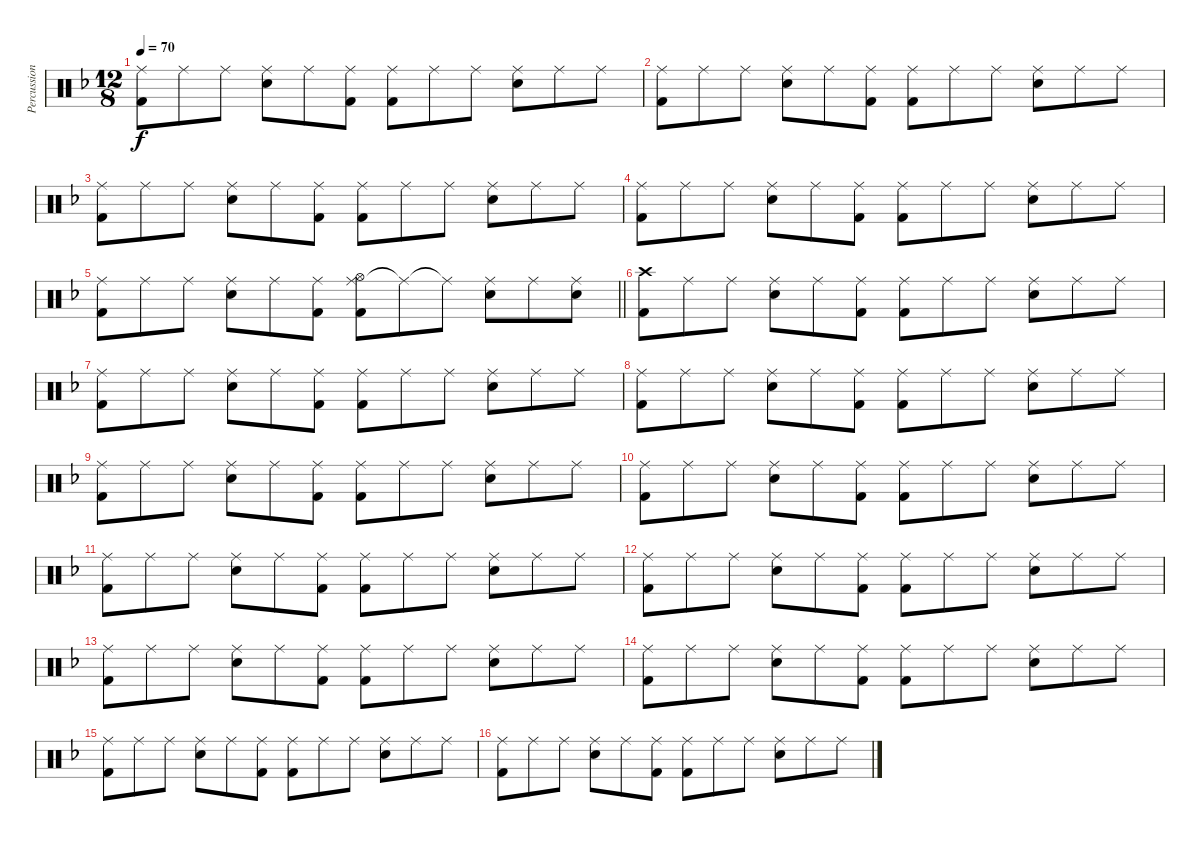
\track ("Percussion" "Percussion") {instrument percussion}
\staff {score}
\articulation defaults
\ts (12 8)
\tempo 70
\clef neutral
\ks dminor
("Ride (middle)" "Kick (hit) 2").8{dy f} "Ride (middle)".8 "Ride (middle)".8 ("Ride (middle)" "Snare (hit) 2").8 "Ride (middle)".8 ("Ride (middle)" "Kick (hit) 2").8 ("Ride (middle)" "Kick (hit) 2").8 "Ride (middle)".8 "Ride (middle)".8 ("Ride (middle)" "Snare (hit) 2").8 "Ride (middle)".8 "Ride (middle)".8 |
("Ride (middle)" "Kick (hit) 2").8 "Ride (middle)".8 "Ride (middle)".8 ("Ride (middle)" "Snare (hit) 2").8 "Ride (middle)".8 ("Ride (middle)" "Kick (hit) 2").8 ("Ride (middle)" "Kick (hit) 2").8 "Ride (middle)".8 "Ride (middle)".8 ("Ride (middle)" "Snare (hit) 2").8 "Ride (middle)".8 "Ride (middle)".8 |
("Ride (middle)" "Kick (hit) 2").8 "Ride (middle)".8 "Ride (middle)".8 ("Ride (middle)" "Snare (hit) 2").8 "Ride (middle)".8 ("Ride (middle)" "Kick (hit) 2").8 ("Ride (middle)" "Kick (hit) 2").8 "Ride (middle)".8 "Ride (middle)".8 ("Ride (middle)" "Snare (hit) 2").8 "Ride (middle)".8 "Ride (middle)".8 |
("Ride (middle)" "Kick (hit) 2").8 "Ride (middle)".8 "Ride (middle)".8 ("Ride (middle)" "Snare (hit) 2").8 "Ride (middle)".8 ("Ride (middle)" "Kick (hit) 2").8 ("Ride (middle)" "Kick (hit) 2").8 "Ride (middle)".8 "Ride (middle)".8 ("Ride (middle)" "Snare (hit) 2").8 "Ride (middle)".8 "Ride (middle)".8 |
\barLineRight lightlight
("Ride (middle)" "Kick (hit) 2").8 "Ride (middle)".8 "Ride (middle)".8 ("Ride (middle)" "Snare (hit) 2").8 "Ride (middle)".8 ("Ride (middle)" "Kick (hit) 2").8 ("Ride (middle)" "Hi-Hat (open)" "Kick (hit) 2").8 "Ride (middle)"{t}.8 "Ride (middle)"{t}.8 ("Ride (middle)" "Snare (hit) 2").8 "Ride (middle)".8 ("Ride (middle)" "Snare (hit) 2").8 |
("Crash high (hit)" "Kick (hit) 2").8 "Ride (middle)".8 "Ride (middle)".8 ("Ride (middle)" "Snare (hit) 2").8 "Ride (middle)".8 ("Ride (middle)" "Kick (hit) 2").8 ("Ride (middle)" "Kick (hit) 2").8 "Ride (middle)".8 "Ride (middle)".8 ("Ride (middle)" "Snare (hit) 2").8 "Ride (middle)".8 "Ride (middle)".8 |
("Ride (middle)" "Kick (hit) 2").8 "Ride (middle)".8 "Ride (middle)".8 ("Ride (middle)" "Snare (hit) 2").8 "Ride (middle)".8 ("Ride (middle)" "Kick (hit) 2").8 ("Ride (middle)" "Kick (hit) 2").8 "Ride (middle)".8 "Ride (middle)".8 ("Ride (middle)" "Snare (hit) 2").8 "Ride (middle)".8 "Ride (middle)".8 |
("Ride (middle)" "Kick (hit) 2").8 "Ride (middle)".8 "Ride (middle)".8 ("Ride (middle)" "Snare (hit) 2").8 "Ride (middle)".8 ("Ride (middle)" "Kick (hit) 2").8 ("Ride (middle)" "Kick (hit) 2").8 "Ride (middle)".8 "Ride (middle)".8 ("Ride (middle)" "Snare (hit) 2").8 "Ride (middle)".8 "Ride (middle)".8 |
("Ride (middle)" "Kick (hit) 2").8 "Ride (middle)".8 "Ride (middle)".8 ("Ride (middle)" "Snare (hit) 2").8 "Ride (middle)".8 ("Ride (middle)" "Kick (hit) 2").8 ("Ride (middle)" "Kick (hit) 2").8 "Ride (middle)".8 "Ride (middle)".8 ("Ride (middle)" "Snare (hit) 2").8 "Ride (middle)".8 "Ride (middle)".8 |
("Ride (middle)" "Kick (hit) 2").8 "Ride (middle)".8 "Ride (middle)".8 ("Ride (middle)" "Snare (hit) 2").8 "Ride (middle)".8 ("Ride (middle)" "Kick (hit) 2").8 ("Ride (middle)" "Kick (hit) 2").8 "Ride (middle)".8 "Ride (middle)".8 ("Ride (middle)" "Snare (hit) 2").8 "Ride (middle)".8 "Ride (middle)".8 |
("Ride (middle)" "Kick (hit) 2").8 "Ride (middle)".8 "Ride (middle)".8 ("Ride (middle)" "Snare (hit) 2").8 "Ride (middle)".8 ("Ride (middle)" "Kick (hit) 2").8 ("Ride (middle)" "Kick (hit) 2").8 "Ride (middle)".8 "Ride (middle)".8 ("Ride (middle)" "Snare (hit) 2").8 "Ride (middle)".8 "Ride (middle)".8 |
("Ride (middle)" "Kick (hit) 2").8 "Ride (middle)".8 "Ride (middle)".8 ("Ride (middle)" "Snare (hit) 2").8 "Ride (middle)".8 ("Ride (middle)" "Kick (hit) 2").8 ("Ride (middle)" "Kick (hit) 2").8 "Ride (middle)".8 "Ride (middle)".8 ("Ride (middle)" "Snare (hit) 2").8 "Ride (middle)".8 "Ride (middle)".8 |
("Ride (middle)" "Kick (hit) 2").8 "Ride (middle)".8 "Ride (middle)".8 ("Ride (middle)" "Snare (hit) 2").8 "Ride (middle)".8 ("Ride (middle)" "Kick (hit) 2").8 ("Ride (middle)" "Kick (hit) 2").8 "Ride (middle)".8 "Ride (middle)".8 ("Ride (middle)" "Snare (hit) 2").8 "Ride (middle)".8 "Ride (middle)".8 |
("Ride (middle)" "Kick (hit) 2").8 "Ride (middle)".8 "Ride (middle)".8 ("Ride (middle)" "Snare (hit) 2").8 "Ride (middle)".8 ("Ride (middle)" "Kick (hit) 2").8 ("Ride (middle)" "Kick (hit) 2").8 "Ride (middle)".8 "Ride (middle)".8 ("Ride (middle)" "Snare (hit) 2").8 "Ride (middle)".8 "Ride (middle)".8 |
("Ride (middle)" "Kick (hit) 2").8 "Ride (middle)".8 "Ride (middle)".8 ("Ride (middle)" "Snare (hit) 2").8 "Ride (middle)".8 ("Ride (middle)" "Kick (hit) 2").8 ("Ride (middle)" "Kick (hit) 2").8 "Ride (middle)".8 "Ride (middle)".8 ("Ride (middle)" "Snare (hit) 2").8 "Ride (middle)".8 "Ride (middle)".8 |
("Ride (middle)" "Kick (hit) 2").8 "Ride (middle)".8 "Ride (middle)".8 ("Ride (middle)" "Snare (hit) 2").8 "Ride (middle)".8 ("Ride (middle)" "Kick (hit) 2").8 ("Ride (middle)" "Kick (hit) 2").8 "Ride (middle)".8 "Ride (middle)".8 ("Ride (middle)" "Snare (hit) 2").8 "Ride (middle)".8 "Ride (middle)".8
